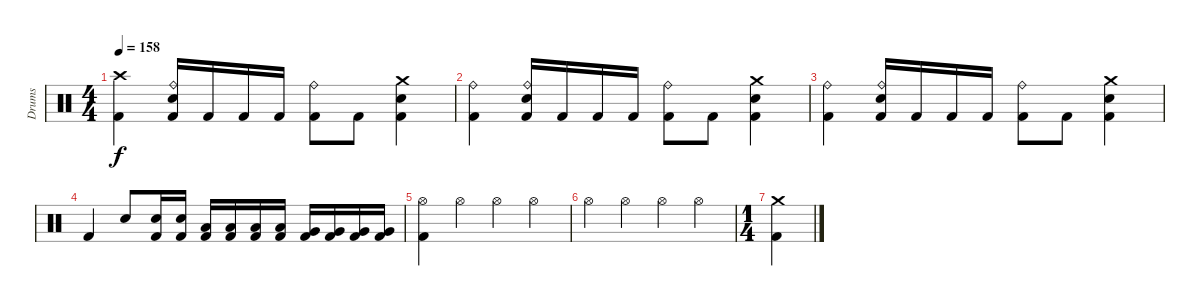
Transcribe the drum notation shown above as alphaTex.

\track ("Drums" "Drums") {instrument percussion}
\staff {score}
\articulation defaults
\ts (4 4)
\tempo 158
\clef neutral
\ks c
("Crash high (hit)" "Kick (hit) 2").4{dy f} ("Ride (bell)" "Electric Snare (hit)" "Kick (hit) 2").16 "Kick (hit) 2".16 "Kick (hit) 2".16 "Kick (hit) 2".16 ("Ride (bell)" "Kick (hit) 2").8 "Kick (hit) 2".8 ("Crash medium (hit)" "Electric Snare (hit)" "Kick (hit) 2").4 |
("Ride (bell)" "Kick (hit) 2").4 ("Ride (bell)" "Electric Snare (hit)" "Kick (hit) 2").16 "Kick (hit) 2".16 "Kick (hit) 2".16 "Kick (hit) 2".16 ("Ride (bell)" "Kick (hit) 2").8 "Kick (hit) 2".8 ("Crash medium (hit)" "Electric Snare (hit)" "Kick (hit) 2").4 |
("Ride (bell)" "Kick (hit) 2").4 ("Ride (bell)" "Electric Snare (hit)" "Kick (hit) 2").16 "Kick (hit) 2".16 "Kick (hit) 2".16 "Kick (hit) 2".16 ("Ride (bell)" "Kick (hit) 2").8 "Kick (hit) 2".8 ("Crash medium (hit)" "Electric Snare (hit)" "Kick (hit) 2").4 |
"Kick (hit) 2".4 "Electric Snare (hit)".8 ("Electric Snare (hit)" "Kick (hit) 2").16 ("Electric Snare (hit)" "Kick (hit) 2").16 ("Low Floor Tom (hit)" "Kick (hit) 2").16 ("Low Floor Tom (hit)" "Kick (hit) 2").16 ("Low Floor Tom (hit)" "Kick (hit) 2").16 ("Low Floor Tom (hit)" "Kick (hit) 2").16 ("Very Low Tom (hit)" "Kick (hit) 2").16 ("Very Low Tom (hit)" "Kick (hit) 2").16 ("Very Low Tom (hit)" "Kick (hit) 2").16 ("Very Low Tom (hit)" "Kick (hit) 2").16 |
("Hi-Hat (open)" "Kick (hit) 2").4 "Hi-Hat (open)".4 "Hi-Hat (open)".4 "Hi-Hat (open)".4 |
"Hi-Hat (open)".4 "Hi-Hat (open)".4 "Hi-Hat (open)".4 "Hi-Hat (open)".4 |
\ts (1 4)
("Crash medium (hit)" "Kick (hit) 2").4
